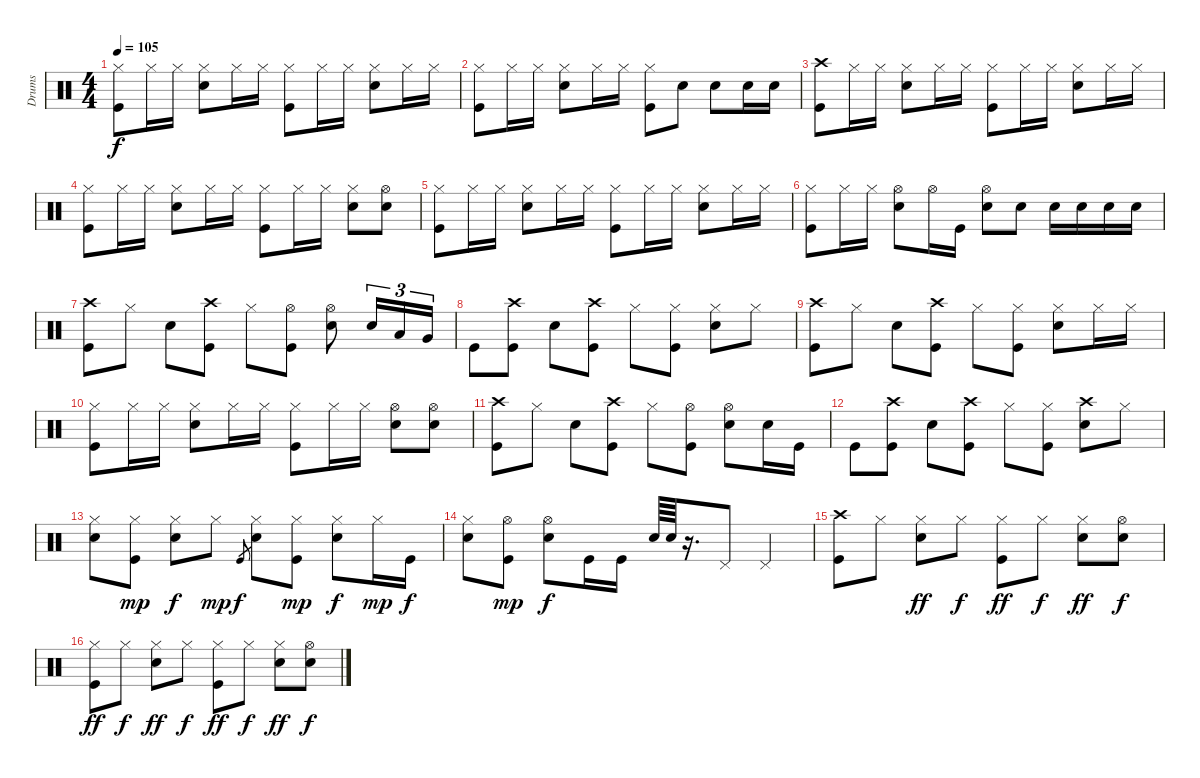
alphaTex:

\track ("Drums" "Drums") {instrument percussion}
\staff {score}
\articulation defaults
\ts (4 4)
\tempo 105
\clef neutral
\ks c
("Hi-Hat (closed)" "Kick (hit)").8{dy f} "Hi-Hat (closed)".16 "Hi-Hat (closed)".16 ("Hi-Hat (closed)" "Snare (hit) 2").8 "Hi-Hat (closed)".16 "Hi-Hat (closed)".16 ("Hi-Hat (closed)" "Kick (hit)").8 "Hi-Hat (closed)".16 "Hi-Hat (closed)".16 ("Hi-Hat (closed)" "Snare (hit) 2").8 "Hi-Hat (closed)".16 "Hi-Hat (closed)".16 |
("Hi-Hat (closed)" "Kick (hit)").8 "Hi-Hat (closed)".16 "Hi-Hat (closed)".16 ("Hi-Hat (closed)" "Snare (hit) 2").8 "Hi-Hat (closed)".16 "Hi-Hat (closed)".16 ("Hi-Hat (closed)" "Kick (hit)").8 "Snare (hit) 2".8 "Snare (hit) 2".8 "Snare (hit) 2".16 "Snare (hit) 2".16 |
("Crash high (hit)" "Kick (hit)").8 "Hi-Hat (closed)".16 "Hi-Hat (closed)".16 ("Hi-Hat (closed)" "Snare (hit) 2").8 "Hi-Hat (closed)".16 "Hi-Hat (closed)".16 ("Hi-Hat (closed)" "Kick (hit)").8 "Hi-Hat (closed)".16 "Hi-Hat (closed)".16 ("Hi-Hat (closed)" "Snare (hit) 2").8 "Hi-Hat (closed)".16 "Hi-Hat (closed)".16 |
("Hi-Hat (closed)" "Kick (hit)").8 "Hi-Hat (closed)".16 "Hi-Hat (closed)".16 ("Hi-Hat (closed)" "Snare (hit) 2").8 "Hi-Hat (closed)".16 "Hi-Hat (closed)".16 ("Hi-Hat (closed)" "Kick (hit)").8 "Hi-Hat (closed)".16 "Hi-Hat (closed)".16 ("Hi-Hat (closed)" "Snare (hit) 2").8 ("Hi-Hat (open)" "Snare (hit) 2").8 |
("Hi-Hat (closed)" "Kick (hit)").8 "Hi-Hat (closed)".16 "Hi-Hat (closed)".16 ("Hi-Hat (closed)" "Snare (hit) 2").8 "Hi-Hat (closed)".16 "Hi-Hat (closed)".16 ("Hi-Hat (closed)" "Kick (hit)").8 "Hi-Hat (closed)".16 "Hi-Hat (closed)".16 ("Hi-Hat (closed)" "Snare (hit) 2").8 "Hi-Hat (closed)".16 "Hi-Hat (closed)".16 |
("Hi-Hat (closed)" "Kick (hit)").8 "Hi-Hat (closed)".16 "Hi-Hat (closed)".16 ("Hi-Hat (open)" "Snare (hit) 2").8 "Hi-Hat (open)".16 "Kick (hit)".16 ("Hi-Hat (open)" "Snare (hit) 2").8 "Snare (hit) 2".8 "Snare (hit) 2".16 "Snare (hit) 2".16 "Snare (hit) 2".16 "Snare (hit) 2".16 |
("Kick (hit)" "Crash high (hit)").8 "Hi-Hat (closed)".8 "Snare (hit) 2".8 ("Kick (hit)" "Crash high (hit)").8 "Hi-Hat (closed)".8 ("Hi-Hat (open)" "Kick (hit)").8 ("Hi-Hat (open)" "Snare (hit) 2").8 "Snare (hit) 2".16{tu (3 2)} "Low Tom (hit)".16{tu (3 2)} "Very Low Tom (hit)".16{tu (3 2)} |
"Kick (hit)".8 ("Crash high (hit)" "Kick (hit)").8 "Snare (hit) 2".8 ("Crash high (hit)" "Kick (hit)").8 "Hi-Hat (closed)".8 ("Hi-Hat (closed)" "Kick (hit)").8 ("Hi-Hat (closed)" "Snare (hit) 2").8 "Hi-Hat (closed)".8 |
("Kick (hit)" "Crash high (hit)").8 "Hi-Hat (closed)".8 "Snare (hit) 2".8 ("Kick (hit)" "Crash high (hit)").8 "Hi-Hat (closed)".8 ("Hi-Hat (closed)" "Kick (hit)").8 ("Hi-Hat (closed)" "Snare (hit) 2").8 "Hi-Hat (closed)".16 "Hi-Hat (closed)".16 |
("Hi-Hat (closed)" "Kick (hit)").8 "Hi-Hat (closed)".16 "Hi-Hat (closed)".16 ("Hi-Hat (closed)" "Snare (hit) 2").8 "Hi-Hat (closed)".16 "Hi-Hat (closed)".16 ("Hi-Hat (closed)" "Kick (hit)").8 "Hi-Hat (closed)".16 "Hi-Hat (closed)".16 ("Hi-Hat (open)" "Snare (hit) 2").8 ("Hi-Hat (open)" "Snare (hit) 2").8 |
("Kick (hit)" "Crash high (hit)").8 "Hi-Hat (closed)".8 "Snare (hit) 2".8 ("Kick (hit)" "Crash high (hit)").8 "Hi-Hat (closed)".8 ("Hi-Hat (open)" "Kick (hit)").8 ("Hi-Hat (open)" "Snare (hit) 2").8 "Snare (hit) 2".16 "Kick (hit)".16 |
"Kick (hit)".8 ("Crash high (hit)" "Kick (hit)").8 "Snare (hit) 2".8 ("Crash high (hit)" "Kick (hit)").8 "Hi-Hat (closed)".8 ("Hi-Hat (closed)" "Kick (hit)").8 ("Crash high (hit)" "Snare (hit) 2").8 "Hi-Hat (closed)".8 |
("Hi-Hat (closed)" "Snare (hit) 2").8 ("Hi-Hat (closed)" "Kick (hit)").8{dy mp} ("Hi-Hat (closed)" "Snare (hit) 2").8{dy f} "Hi-Hat (closed)".8{dy mp} "Kick (hit)".8{gr dy f} ("Hi-Hat (closed)" "Snare (hit) 2").8 ("Hi-Hat (closed)" "Kick (hit)").8{dy mp} ("Hi-Hat (closed)" "Snare (hit) 2").8{dy f} "Hi-Hat (closed)".16{dy mp} "Kick (hit)".16{dy f} |
("Hi-Hat (closed)" "Snare (hit) 2").8 ("Hi-Hat (open)" "Kick (hit)").8{dy mp} ("Hi-Hat (open)" "Snare (hit) 2").8{dy f} "Kick (hit)".16 "Kick (hit)".16 "Snare (hit) 2".64 "Snare (hit) 2".64 r.16{d} "Pedal Hi-Hat (hit)".8 "Pedal Hi-Hat (hit)".4 |
("Crash high (hit)" "Kick (hit)").8 "Hi-Hat (closed)".8 ("Hi-Hat (closed)" "Snare (hit) 2").8{dy ff} "Hi-Hat (closed)".8{dy f} ("Hi-Hat (closed)" "Kick (hit)").8{dy ff} "Hi-Hat (closed)".8{dy f} ("Hi-Hat (closed)" "Snare (hit) 2").8{dy ff} ("Hi-Hat (open)" "Snare (hit) 2").8{dy f} |
("Hi-Hat (closed)" "Kick (hit)").8{dy ff} "Hi-Hat (closed)".8{dy f} ("Hi-Hat (closed)" "Snare (hit) 2").8{dy ff} "Hi-Hat (closed)".8{dy f} ("Hi-Hat (closed)" "Kick (hit)").8{dy ff} "Hi-Hat (closed)".8{dy f} ("Hi-Hat (closed)" "Snare (hit) 2").8{dy ff} ("Hi-Hat (open)" "Snare (hit) 2").8{dy f}
